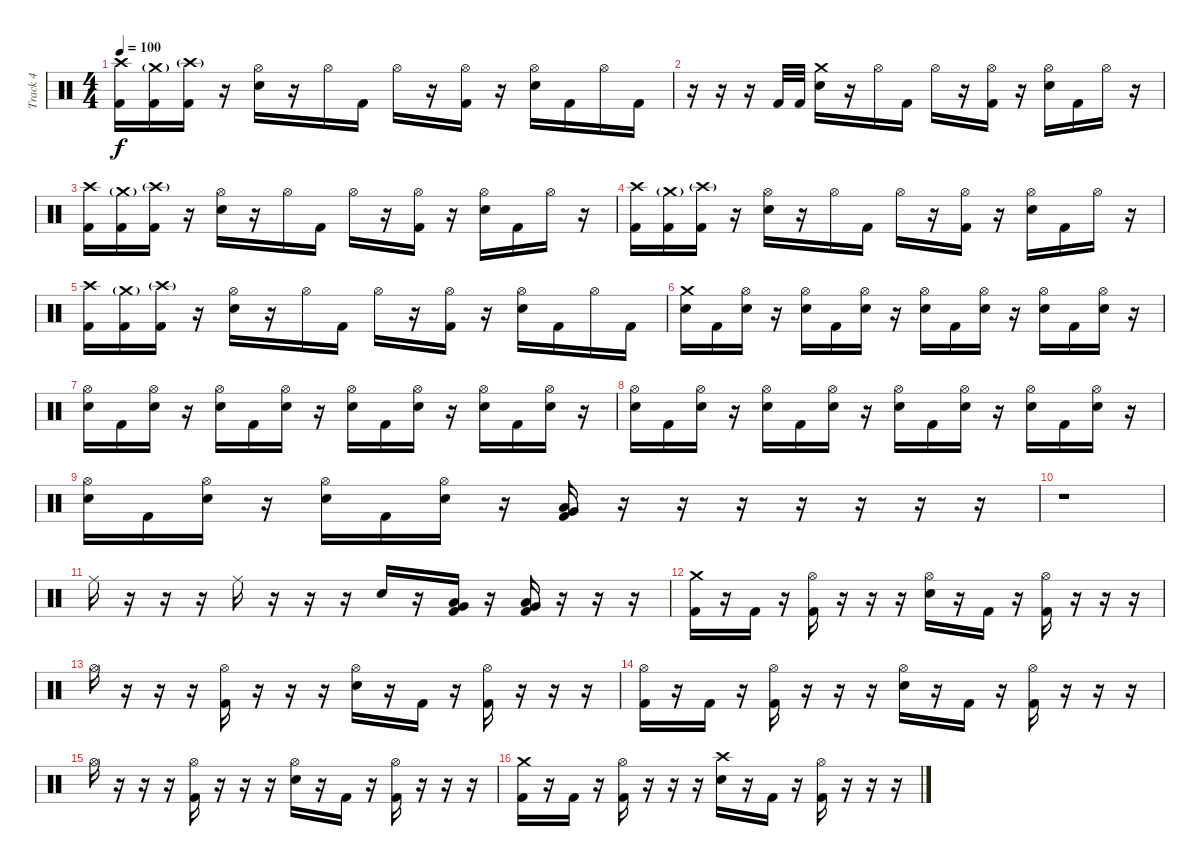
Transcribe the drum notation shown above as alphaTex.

\track ("Track 4" "Track 4") {instrument percussion}
\staff {score}
\articulation defaults
\ts (4 4)
\tempo 100
\clef neutral
\ks c
("Crash high (hit)" "Kick (hit) 2").16{dy f} ("Crash medium (hit)"{g} "Kick (hit) 2").16 ("Crash high (hit)"{g} "Kick (hit) 2").16 r.16 ("Hi-Hat (open)" "Electric Snare (hit)").16 r.16 "Hi-Hat (open)".16 "Kick (hit) 2".16 "Hi-Hat (open)".16 r.16 ("Hi-Hat (open)" "Kick (hit) 2").16 r.16 ("Hi-Hat (open)" "Electric Snare (hit)").16 "Kick (hit) 2".16 "Hi-Hat (open)".16 "Kick (hit) 2".16 |
r.16 r.16 r.16 "Kick (hit) 2".32 "Kick (hit) 2".32 ("Crash medium (hit)" "Electric Snare (hit)").16 r.16 "Hi-Hat (open)".16 "Kick (hit) 2".16 "Hi-Hat (open)".16 r.16 ("Hi-Hat (open)" "Kick (hit) 2").16 r.16 ("Hi-Hat (open)" "Electric Snare (hit)").16 "Kick (hit) 2".16 "Hi-Hat (open)".16 r.16 |
("Crash high (hit)" "Kick (hit) 2").16 ("Crash medium (hit)"{g} "Kick (hit) 2").16 ("Crash high (hit)"{g} "Kick (hit) 2").16 r.16 ("Hi-Hat (open)" "Electric Snare (hit)").16 r.16 "Hi-Hat (open)".16 "Kick (hit) 2".16 "Hi-Hat (open)".16 r.16 ("Hi-Hat (open)" "Kick (hit) 2").16 r.16 ("Hi-Hat (open)" "Electric Snare (hit)").16 "Kick (hit) 2".16 "Hi-Hat (open)".16 r.16 |
("Crash high (hit)" "Kick (hit) 2").16 ("Crash medium (hit)"{g} "Kick (hit) 2").16 ("Crash high (hit)"{g} "Kick (hit) 2").16 r.16 ("Hi-Hat (open)" "Electric Snare (hit)").16 r.16 "Hi-Hat (open)".16 "Kick (hit) 2".16 "Hi-Hat (open)".16 r.16 ("Hi-Hat (open)" "Kick (hit) 2").16 r.16 ("Hi-Hat (open)" "Electric Snare (hit)").16 "Kick (hit) 2".16 "Hi-Hat (open)".16 r.16 |
("Crash high (hit)" "Kick (hit) 2").16 ("Crash medium (hit)"{g} "Kick (hit) 2").16 ("Crash high (hit)"{g} "Kick (hit) 2").16 r.16 ("Hi-Hat (open)" "Electric Snare (hit)").16 r.16 "Hi-Hat (open)".16 "Kick (hit) 2".16 "Hi-Hat (open)".16 r.16 ("Hi-Hat (open)" "Kick (hit) 2").16 r.16 ("Hi-Hat (open)" "Electric Snare (hit)").16 "Kick (hit) 2".16 "Hi-Hat (open)".16 "Kick (hit) 2".16 |
("Crash medium (hit)" "Electric Snare (hit)").16 "Kick (hit) 2".16 ("Hi-Hat (open)" "Electric Snare (hit)").16 r.16 ("Hi-Hat (open)" "Electric Snare (hit)").16 "Kick (hit) 2".16 ("Hi-Hat (open)" "Electric Snare (hit)").16 r.16 ("Hi-Hat (open)" "Electric Snare (hit)").16 "Kick (hit) 2".16 ("Hi-Hat (open)" "Electric Snare (hit)").16 r.16 ("Hi-Hat (open)" "Electric Snare (hit)").16 "Kick (hit) 2".16 ("Hi-Hat (open)" "Electric Snare (hit)").16 r.16 |
("Hi-Hat (open)" "Electric Snare (hit)").16 "Kick (hit) 2".16 ("Hi-Hat (open)" "Electric Snare (hit)").16 r.16 ("Hi-Hat (open)" "Electric Snare (hit)").16 "Kick (hit) 2".16 ("Hi-Hat (open)" "Electric Snare (hit)").16 r.16 ("Hi-Hat (open)" "Electric Snare (hit)").16 "Kick (hit) 2".16 ("Hi-Hat (open)" "Electric Snare (hit)").16 r.16 ("Hi-Hat (open)" "Electric Snare (hit)").16 "Kick (hit) 2".16 ("Hi-Hat (open)" "Electric Snare (hit)").16 r.16 |
("Hi-Hat (open)" "Electric Snare (hit)").16 "Kick (hit) 2".16 ("Hi-Hat (open)" "Electric Snare (hit)").16 r.16 ("Hi-Hat (open)" "Electric Snare (hit)").16 "Kick (hit) 2".16 ("Hi-Hat (open)" "Electric Snare (hit)").16 r.16 ("Hi-Hat (open)" "Electric Snare (hit)").16 "Kick (hit) 2".16 ("Hi-Hat (open)" "Electric Snare (hit)").16 r.16 ("Hi-Hat (open)" "Electric Snare (hit)").16 "Kick (hit) 2".16 ("Hi-Hat (open)" "Electric Snare (hit)").16 r.16 |
("Hi-Hat (open)" "Electric Snare (hit)").16 "Kick (hit) 2".16 ("Hi-Hat (open)" "Electric Snare (hit)").16 r.16 ("Hi-Hat (open)" "Electric Snare (hit)").16 "Kick (hit) 2".16 ("Hi-Hat (open)" "Electric Snare (hit)").16 r.16 ("Low Floor Tom (hit)" "Very Low Tom (hit)" "Kick (hit) 2").16 r.16 r.16 r.16 r.16 r.16 r.16 r.16 |
r.1 |
"Ride (middle)".16 r.16 r.16 r.16 "Ride (middle)".16 r.16 r.16 r.16 "Electric Snare (hit)".16 r.16 ("Very Low Tom (hit)" "Low Tom (hit)" "Kick (hit) 2").16 r.16 ("Low Floor Tom (hit)" "Very Low Tom (hit)" "Kick (hit) 2").16 r.16 r.16 r.16 |
("Crash medium (hit)" "Kick (hit) 2").16 r.16 "Kick (hit) 2".16 r.16 ("Hi-Hat (open)" "Kick (hit) 2").16 r.16 r.16 r.16 ("Hi-Hat (open)" "Electric Snare (hit)").16 r.16 "Kick (hit) 2".16 r.16 ("Hi-Hat (open)" "Kick (hit) 2").16 r.16 r.16 r.16 |
"Hi-Hat (open)".16 r.16 r.16 r.16 ("Hi-Hat (open)" "Kick (hit) 2").16 r.16 r.16 r.16 ("Hi-Hat (open)" "Electric Snare (hit)").16 r.16 "Kick (hit) 2".16 r.16 ("Hi-Hat (open)" "Kick (hit) 2").16 r.16 r.16 r.16 |
("Hi-Hat (open)" "Kick (hit) 2").16 r.16 "Kick (hit) 2".16 r.16 ("Hi-Hat (open)" "Kick (hit) 2").16 r.16 r.16 r.16 ("Hi-Hat (open)" "Electric Snare (hit)").16 r.16 "Kick (hit) 2".16 r.16 ("Hi-Hat (open)" "Kick (hit) 2").16 r.16 r.16 r.16 |
"Hi-Hat (open)".16 r.16 r.16 r.16 ("Hi-Hat (open)" "Kick (hit) 2").16 r.16 r.16 r.16 ("Hi-Hat (open)" "Electric Snare (hit)").16 r.16 "Kick (hit) 2".16 r.16 ("Hi-Hat (open)" "Kick (hit) 2").16 r.16 r.16 r.16 |
("Crash medium (hit)" "Kick (hit) 2").16 r.16 "Kick (hit) 2".16 r.16 ("Hi-Hat (open)" "Kick (hit) 2").16 r.16 r.16 r.16 ("Crash high (hit)" "Electric Snare (hit)").16 r.16 "Kick (hit) 2".16 r.16 ("Hi-Hat (open)" "Kick (hit) 2").16 r.16 r.16 r.16
